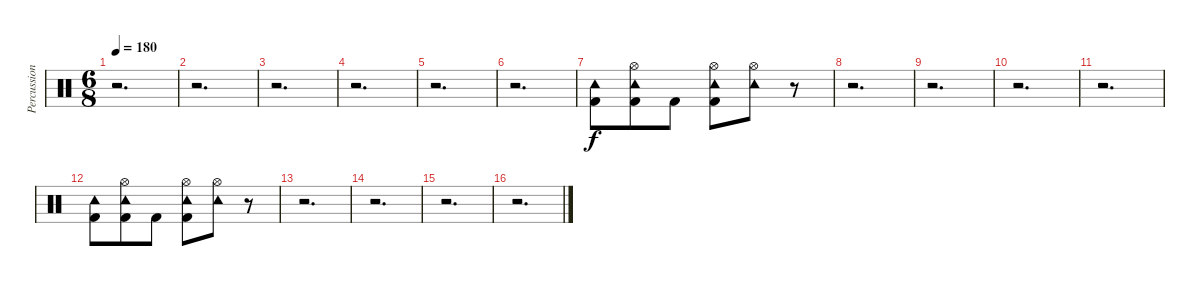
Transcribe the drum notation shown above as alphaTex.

\track ("Percussion" "Percussion") {instrument percussion}
\staff {score}
\articulation defaults
\ts (6 8)
\tempo 180
\clef neutral
\ks c
r.2{d dy f} |
r.2{d} |
r.2{d} |
r.2{d} |
r.2{d} |
r.2{d} |
("Kick (hit) 2" "Tambourine (hit)").8 ("Kick (hit) 2" "Hi-Hat (open)" "Tambourine (hit)").8 "Kick (hit) 2".8 ("Kick (hit) 2" "Hi-Hat (open)" "Tambourine (hit)").8 ("Hi-Hat (open)" "Tambourine (hit)").8 r.8 |
r.2{d} |
r.2{d} |
r.2{d} |
r.2{d} |
("Kick (hit) 2" "Tambourine (hit)").8 ("Kick (hit) 2" "Hi-Hat (open)" "Tambourine (hit)").8 "Kick (hit) 2".8 ("Kick (hit) 2" "Hi-Hat (open)" "Tambourine (hit)").8 ("Hi-Hat (open)" "Tambourine (hit)").8 r.8 |
r.2{d} |
r.2{d} |
r.2{d} |
r.2{d}
